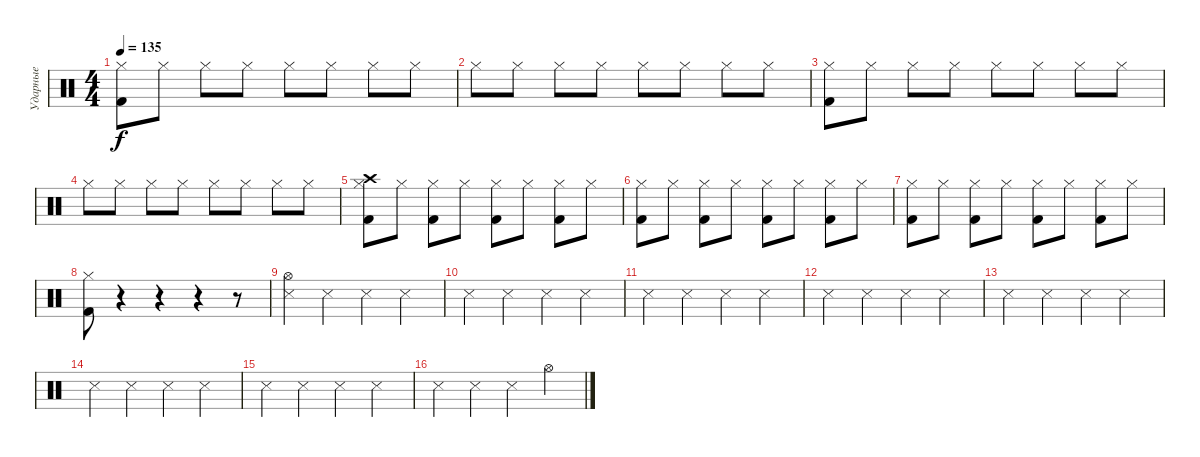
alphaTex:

\track ("Ударные" "Ударные") {instrument percussion}
\staff {score}
\articulation defaults
\ts (4 4)
\tempo 135
\clef neutral
\ks c
("Kick (hit) 2" "Hi-Hat (closed)").8{dy f} "Hi-Hat (closed)".8 "Hi-Hat (closed)".8 "Hi-Hat (closed)".8 "Hi-Hat (closed)".8 "Hi-Hat (closed)".8 "Hi-Hat (closed)".8 "Hi-Hat (closed)".8 |
"Hi-Hat (closed)".8 "Hi-Hat (closed)".8 "Hi-Hat (closed)".8 "Hi-Hat (closed)".8 "Hi-Hat (closed)".8 "Hi-Hat (closed)".8 "Hi-Hat (closed)".8 "Hi-Hat (closed)".8 |
("Kick (hit) 2" "Hi-Hat (closed)").8 "Hi-Hat (closed)".8 "Hi-Hat (closed)".8 "Hi-Hat (closed)".8 "Hi-Hat (closed)".8 "Hi-Hat (closed)".8 "Hi-Hat (closed)".8 "Hi-Hat (closed)".8 |
"Hi-Hat (closed)".8 "Hi-Hat (closed)".8 "Hi-Hat (closed)".8 "Hi-Hat (closed)".8 "Hi-Hat (closed)".8 "Hi-Hat (closed)".8 "Hi-Hat (closed)".8 "Hi-Hat (closed)".8 |
("Kick (hit) 2" "Hi-Hat (closed)" "Crash high (hit)").8 "Hi-Hat (closed)".8 ("Kick (hit) 2" "Hi-Hat (closed)").8 "Hi-Hat (closed)".8 ("Kick (hit) 2" "Hi-Hat (closed)").8 "Hi-Hat (closed)".8 ("Kick (hit) 2" "Hi-Hat (closed)").8 "Hi-Hat (closed)".8 |
("Kick (hit) 2" "Hi-Hat (closed)").8 "Hi-Hat (closed)".8 ("Kick (hit) 2" "Hi-Hat (closed)").8 "Hi-Hat (closed)".8 ("Kick (hit) 2" "Hi-Hat (closed)").8 "Hi-Hat (closed)".8 ("Kick (hit) 2" "Hi-Hat (closed)").8 "Hi-Hat (closed)".8 |
("Kick (hit) 2" "Hi-Hat (closed)").8 "Hi-Hat (closed)".8 ("Kick (hit) 2" "Hi-Hat (closed)").8 "Hi-Hat (closed)".8 ("Kick (hit) 2" "Hi-Hat (closed)").8 "Hi-Hat (closed)".8 ("Kick (hit) 2" "Hi-Hat (closed)").8 "Hi-Hat (closed)".8 |
("Kick (hit) 2" "Hi-Hat (closed)").8 r.4 r.4 r.4 r.8 |
("Snare (side stick) 3" "Hi-Hat (open)").4 "Snare (side stick) 3".4{volume 13} "Snare (side stick) 3".4 "Snare (side stick) 3".4 |
"Snare (side stick) 3".4 "Snare (side stick) 3".4 "Snare (side stick) 3".4 "Snare (side stick) 3".4 |
"Snare (side stick) 3".4 "Snare (side stick) 3".4 "Snare (side stick) 3".4 "Snare (side stick) 3".4 |
"Snare (side stick) 3".4 "Snare (side stick) 3".4 "Snare (side stick) 3".4 "Snare (side stick) 3".4 |
"Snare (side stick) 3".4 "Snare (side stick) 3".4 "Snare (side stick) 3".4 "Snare (side stick) 3".4 |
"Snare (side stick) 3".4 "Snare (side stick) 3".4 "Snare (side stick) 3".4 "Snare (side stick) 3".4 |
"Snare (side stick) 3".4 "Snare (side stick) 3".4 "Snare (side stick) 3".4 "Snare (side stick) 3".4 |
"Snare (side stick) 3".4 "Snare (side stick) 3".4 "Snare (side stick) 3".4 "Hi-Hat (open)".4
